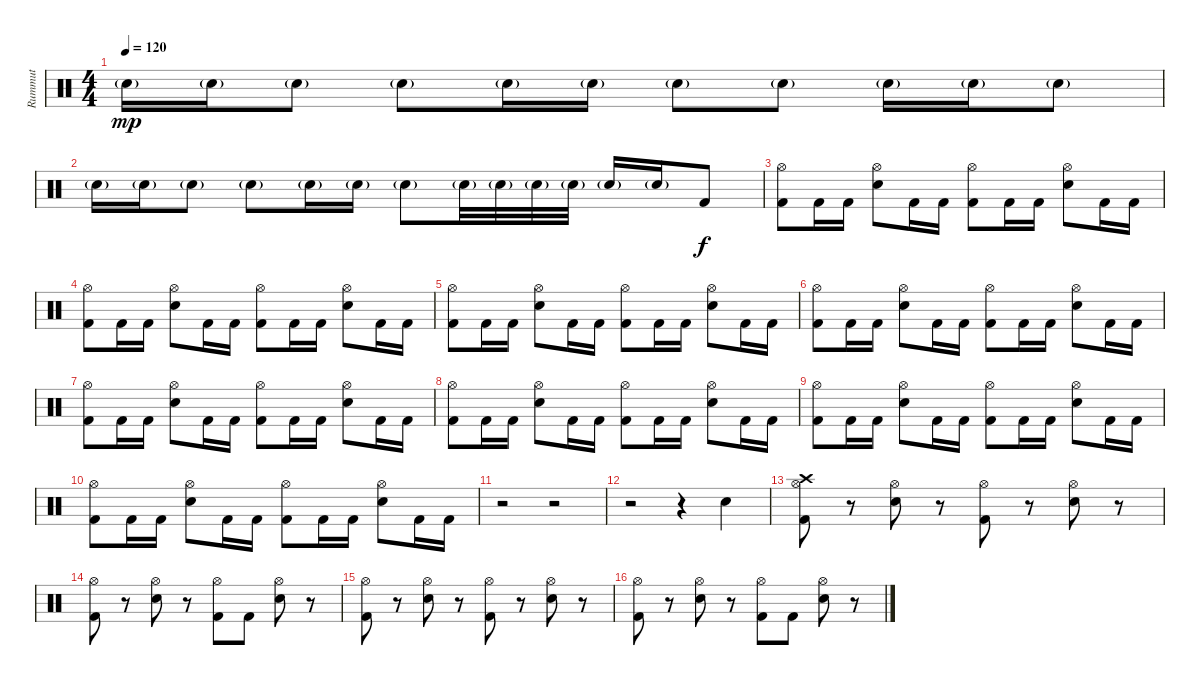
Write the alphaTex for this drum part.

\track ("Rummut" "Rummut") {instrument percussion}
\staff {score}
\articulation defaults
\ts (4 4)
\tempo 120
\clef neutral
\ks c "Snare (hit) 2"{g}.16{dy mp} "Snare (hit) 2"{g}.16 "Snare (hit) 2"{g}.8 "Snare (hit) 2"{g}.8 "Snare (hit) 2"{g}.16 "Snare (hit) 2"{g}.16 "Snare (hit) 2"{g}.8 "Snare (hit) 2"{g}.8 "Snare (hit) 2"{g}.16 "Snare (hit) 2"{g}.16 "Snare (hit) 2"{g}.8
|
"Snare (hit) 2"{g}.16 "Snare (hit) 2"{g}.16 "Snare (hit) 2"{g}.8 "Snare (hit) 2"{g}.8 "Snare (hit) 2"{g}.16 "Snare (hit) 2"{g}.16 "Snare (hit) 2"{g}.8 "Snare (hit) 2"{g}.32 "Snare (hit) 2"{g}.32 "Snare (hit) 2"{g}.32 "Snare (hit) 2"{g}.32 "Snare (hit) 2"{g}.16 "Snare (hit) 2"{g}.16 "Kick (hit) 2".8{dy f} |
("Kick (hit) 2" "Hi-Hat (open)").8 "Kick (hit) 2".16 "Kick (hit) 2".16 ("Snare (hit) 2" "Hi-Hat (open)").8 "Kick (hit) 2".16 "Kick (hit) 2".16 ("Kick (hit) 2" "Hi-Hat (open)").8 "Kick (hit) 2".16 "Kick (hit) 2".16 ("Snare (hit) 2" "Hi-Hat (open)").8 "Kick (hit) 2".16 "Kick (hit) 2".16 |
("Kick (hit) 2" "Hi-Hat (open)").8 "Kick (hit) 2".16 "Kick (hit) 2".16 ("Snare (hit) 2" "Hi-Hat (open)").8 "Kick (hit) 2".16 "Kick (hit) 2".16 ("Kick (hit) 2" "Hi-Hat (open)").8 "Kick (hit) 2".16 "Kick (hit) 2".16 ("Snare (hit) 2" "Hi-Hat (open)").8 "Kick (hit) 2".16 "Kick (hit) 2".16 |
("Kick (hit) 2" "Hi-Hat (open)").8 "Kick (hit) 2".16 "Kick (hit) 2".16 ("Snare (hit) 2" "Hi-Hat (open)").8 "Kick (hit) 2".16 "Kick (hit) 2".16 ("Kick (hit) 2" "Hi-Hat (open)").8 "Kick (hit) 2".16 "Kick (hit) 2".16 ("Snare (hit) 2" "Hi-Hat (open)").8 "Kick (hit) 2".16 "Kick (hit) 2".16 |
("Kick (hit) 2" "Hi-Hat (open)").8 "Kick (hit) 2".16 "Kick (hit) 2".16 ("Snare (hit) 2" "Hi-Hat (open)").8 "Kick (hit) 2".16 "Kick (hit) 2".16 ("Kick (hit) 2" "Hi-Hat (open)").8 "Kick (hit) 2".16 "Kick (hit) 2".16 ("Snare (hit) 2" "Hi-Hat (open)").8 "Kick (hit) 2".16 "Kick (hit) 2".16 |
("Kick (hit) 2" "Hi-Hat (open)").8 "Kick (hit) 2".16 "Kick (hit) 2".16 ("Snare (hit) 2" "Hi-Hat (open)").8 "Kick (hit) 2".16 "Kick (hit) 2".16 ("Kick (hit) 2" "Hi-Hat (open)").8 "Kick (hit) 2".16 "Kick (hit) 2".16 ("Snare (hit) 2" "Hi-Hat (open)").8 "Kick (hit) 2".16 "Kick (hit) 2".16 |
("Kick (hit) 2" "Hi-Hat (open)").8 "Kick (hit) 2".16 "Kick (hit) 2".16 ("Snare (hit) 2" "Hi-Hat (open)").8 "Kick (hit) 2".16 "Kick (hit) 2".16 ("Kick (hit) 2" "Hi-Hat (open)").8 "Kick (hit) 2".16 "Kick (hit) 2".16 ("Snare (hit) 2" "Hi-Hat (open)").8 "Kick (hit) 2".16 "Kick (hit) 2".16 |
("Kick (hit) 2" "Hi-Hat (open)").8 "Kick (hit) 2".16 "Kick (hit) 2".16 ("Snare (hit) 2" "Hi-Hat (open)").8 "Kick (hit) 2".16 "Kick (hit) 2".16 ("Kick (hit) 2" "Hi-Hat (open)").8 "Kick (hit) 2".16 "Kick (hit) 2".16 ("Snare (hit) 2" "Hi-Hat (open)").8 "Kick (hit) 2".16 "Kick (hit) 2".16 |
("Kick (hit) 2" "Hi-Hat (open)").8 "Kick (hit) 2".16 "Kick (hit) 2".16 ("Snare (hit) 2" "Hi-Hat (open)").8 "Kick (hit) 2".16 "Kick (hit) 2".16 ("Kick (hit) 2" "Hi-Hat (open)").8 "Kick (hit) 2".16 "Kick (hit) 2".16 ("Snare (hit) 2" "Hi-Hat (open)").8 "Kick (hit) 2".16 "Kick (hit) 2".16 |
r.2 r.2 |
r.2 r.4 "Snare (hit) 2".4 |
("Kick (hit) 2" "Hi-Hat (open)" "Crash high (hit)").8 r.8 ("Snare (hit) 2" "Hi-Hat (open)").8 r.8 ("Kick (hit) 2" "Hi-Hat (open)").8 r.8 ("Snare (hit) 2" "Hi-Hat (open)").8 r.8 |
("Kick (hit) 2" "Hi-Hat (open)").8 r.8 ("Snare (hit) 2" "Hi-Hat (open)").8 r.8 ("Kick (hit) 2" "Hi-Hat (open)").8 "Kick (hit) 2".8 ("Snare (hit) 2" "Hi-Hat (open)").8 r.8 |
("Kick (hit) 2" "Hi-Hat (open)").8 r.8 ("Snare (hit) 2" "Hi-Hat (open)").8 r.8 ("Kick (hit) 2" "Hi-Hat (open)").8 r.8 ("Snare (hit) 2" "Hi-Hat (open)").8 r.8 |
("Kick (hit) 2" "Hi-Hat (open)").8 r.8 ("Snare (hit) 2" "Hi-Hat (open)").8 r.8 ("Kick (hit) 2" "Hi-Hat (open)").8 "Kick (hit) 2".8 ("Snare (hit) 2" "Hi-Hat (open)").8 r.8
